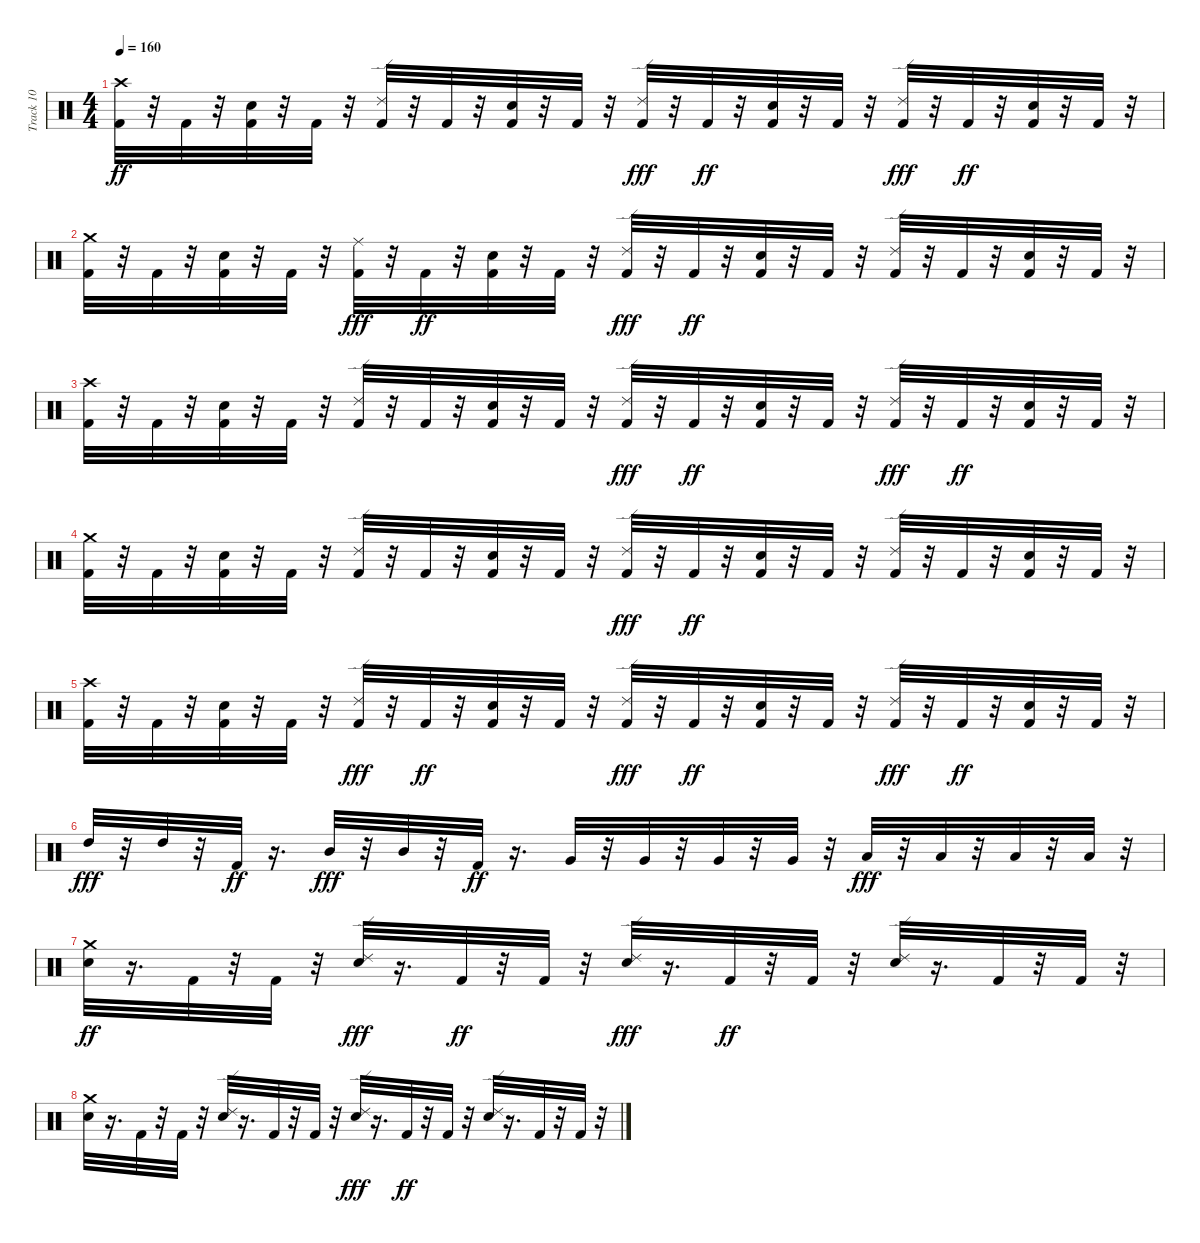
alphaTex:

\track ("Track 10" "Track 10") {instrument percussion}
\staff {score}
\articulation defaults
\ts (4 4)
\tempo 160
\clef neutral
\ks c
("Kick (hit) 2" "Crash high (hit)").32{dy ff} r.32 "Kick (hit) 2".32 r.32 ("Kick (hit) 2" "Electric Snare (hit)").32 r.32 "Kick (hit) 2".32 r.32 ("Ride (edge) 2" "Kick (hit) 2").32 r.32 "Kick (hit) 2".32 r.32 ("Electric Snare (hit)" "Kick (hit) 2").32 r.32 "Kick (hit) 2".32 r.32 ("Kick (hit) 2" "Ride (edge) 2").32{dy fff} r.32 "Kick (hit) 2".32{dy ff} r.32 ("Kick (hit) 2" "Electric Snare (hit)").32 r.32 "Kick (hit) 2".32 r.32 ("Kick (hit) 2" "Ride (edge) 2").32{dy fff} r.32 "Kick (hit) 2".32{dy ff} r.32 ("Electric Snare (hit)" "Kick (hit) 2").32 r.32 "Kick (hit) 2".32 r.32 |
("Crash medium (hit)" "Kick (hit) 2").32 r.32 "Kick (hit) 2".32 r.32 ("Kick (hit) 2" "Electric Snare (hit)").32 r.32 "Kick (hit) 2".32 r.32 ("Kick (hit) 2" "Ride (middle)").32{dy fff} r.32 "Kick (hit) 2".32{dy ff} r.32 ("Electric Snare (hit)" "Kick (hit) 2").32 r.32 "Kick (hit) 2".32 r.32 ("Kick (hit) 2" "Ride (edge) 2").32{dy fff} r.32 "Kick (hit) 2".32{dy ff} r.32 ("Electric Snare (hit)" "Kick (hit) 2").32 r.32 "Kick (hit) 2".32 r.32 ("Ride (edge) 2" "Kick (hit) 2").32 r.32 "Kick (hit) 2".32 r.32 ("Kick (hit) 2" "Electric Snare (hit)").32 r.32 "Kick (hit) 2".32 r.32 |
("Crash high (hit)" "Kick (hit) 2").32 r.32 "Kick (hit) 2".32 r.32 ("Electric Snare (hit)" "Kick (hit) 2").32 r.32 "Kick (hit) 2".32 r.32 ("Ride (edge) 2" "Kick (hit) 2").32 r.32 "Kick (hit) 2".32 r.32 ("Kick (hit) 2" "Electric Snare (hit)").32 r.32 "Kick (hit) 2".32 r.32 ("Kick (hit) 2" "Ride (edge) 2").32{dy fff} r.32 "Kick (hit) 2".32{dy ff} r.32 ("Kick (hit) 2" "Electric Snare (hit)").32 r.32 "Kick (hit) 2".32 r.32 ("Kick (hit) 2" "Ride (edge) 2").32{dy fff} r.32 "Kick (hit) 2".32{dy ff} r.32 ("Kick (hit) 2" "Electric Snare (hit)").32 r.32 "Kick (hit) 2".32 r.32 |
("Crash medium (hit)" "Kick (hit) 2").32 r.32 "Kick (hit) 2".32 r.32 ("Kick (hit) 2" "Electric Snare (hit)").32 r.32 "Kick (hit) 2".32 r.32 ("Ride (edge) 2" "Kick (hit) 2").32 r.32 "Kick (hit) 2".32 r.32 ("Electric Snare (hit)" "Kick (hit) 2").32 r.32 "Kick (hit) 2".32 r.32 ("Kick (hit) 2" "Ride (edge) 2").32{dy fff} r.32 "Kick (hit) 2".32{dy ff} r.32 ("Kick (hit) 2" "Electric Snare (hit)").32 r.32 "Kick (hit) 2".32 r.32 ("Ride (edge) 2" "Kick (hit) 2").32 r.32 "Kick (hit) 2".32 r.32 ("Kick (hit) 2" "Electric Snare (hit)").32 r.32 "Kick (hit) 2".32 r.32 |
("Kick (hit) 2" "Crash high (hit)").32 r.32 "Kick (hit) 2".32 r.32 ("Electric Snare (hit)" "Kick (hit) 2").32 r.32 "Kick (hit) 2".32 r.32 ("Kick (hit) 2" "Ride (edge) 2").32{dy fff} r.32 "Kick (hit) 2".32{dy ff} r.32 ("Electric Snare (hit)" "Kick (hit) 2").32 r.32 "Kick (hit) 2".32 r.32 ("Kick (hit) 2" "Ride (edge) 2").32{dy fff} r.32 "Kick (hit) 2".32{dy ff} r.32 ("Kick (hit) 2" "Electric Snare (hit)").32 r.32 "Kick (hit) 2".32 r.32 ("Kick (hit) 2" "Ride (edge) 2").32{dy fff} r.32 "Kick (hit) 2".32{dy ff} r.32 ("Electric Snare (hit)" "Kick (hit) 2").32 r.32 "Kick (hit) 2".32 r.32 |
"High Tom (hit)".32{dy fff} r.32 "High Tom (hit)".32 r.32 "Kick (hit) 2".32{dy ff} r.16{d} "Mid Tom (hit)".32{dy fff} r.32 "Mid Tom (hit)".32 r.32 "Kick (hit) 2".32{dy ff} r.16{d} "Very Low Tom (hit)".32 r.32 "Very Low Tom (hit)".32 r.32 "Very Low Tom (hit)".32 r.32 "Very Low Tom (hit)".32 r.32 "Low Tom (hit)".32{dy fff} r.32 "Low Tom (hit)".32 r.32 "Low Tom (hit)".32 r.32 "Low Tom (hit)".32 r.32 |
("Crash medium (hit)" "Electric Snare (hit)").32{dy ff} r.16{d} "Kick (hit) 2".32 r.32 "Kick (hit) 2".32 r.32 ("Electric Snare (hit)" "Ride (edge) 2").32{dy fff} r.16{d} "Kick (hit) 2".32{dy ff} r.32 "Kick (hit) 2".32 r.32 ("Electric Snare (hit)" "Ride (edge) 2").32{dy fff} r.16{d} "Kick (hit) 2".32{dy ff} r.32 "Kick (hit) 2".32 r.32 ("Ride (edge) 2" "Electric Snare (hit)").32 r.16{d} "Kick (hit) 2".32 r.32 "Kick (hit) 2".32 r.32 |
("Electric Snare (hit)" "Crash medium (hit)").32 r.16{d} "Kick (hit) 2".32 r.32 "Kick (hit) 2".32 r.32 ("Ride (edge) 2" "Electric Snare (hit)").32 r.16{d} "Kick (hit) 2".32 r.32 "Kick (hit) 2".32 r.32 ("Electric Snare (hit)" "Ride (edge) 2").32{dy fff} r.16{d} "Kick (hit) 2".32{dy ff} r.32 "Kick (hit) 2".32 r.32 ("Ride (edge) 2" "Electric Snare (hit)").32 r.16{d} "Kick (hit) 2".32 r.32 "Kick (hit) 2".32 r.32
